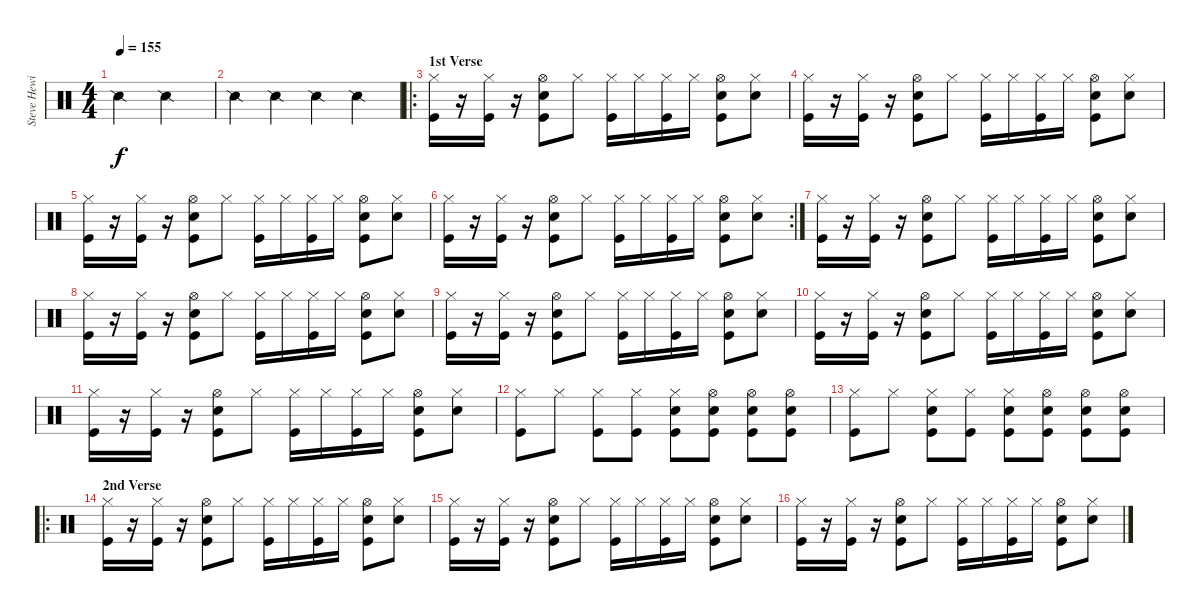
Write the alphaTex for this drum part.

\track ("Steve Hewitt" "Steve Hewi") {instrument percussion}
\staff {score}
\articulation defaults
\ts (4 4)
\tempo 155
\clef neutral
\ks c "Snare (side stick) 2".2{dy f} "Snare (side stick) 2".2
|
"Snare (side stick) 2".4 "Snare (side stick) 2".4 "Snare (side stick) 2".4 "Snare (side stick) 2".4 |
\ro
\section ("" "1st Verse")
("Hi-Hat (closed)" "Kick (hit)").16 r.16 ("Hi-Hat (closed)" "Kick (hit)").16 r.16 ("Snare (hit) 2" "Hi-Hat (open)" "Kick (hit)").8 "Hi-Hat (closed)".8 ("Hi-Hat (closed)" "Kick (hit)").16 "Hi-Hat (closed)".16 ("Hi-Hat (closed)" "Kick (hit)").16 "Hi-Hat (closed)".16 ("Snare (hit) 2" "Hi-Hat (open)" "Kick (hit)").8 ("Snare (hit) 2" "Hi-Hat (closed)").8 |
("Hi-Hat (closed)" "Kick (hit)").16 r.16 ("Hi-Hat (closed)" "Kick (hit)").16 r.16 ("Snare (hit) 2" "Hi-Hat (open)" "Kick (hit)").8 "Hi-Hat (closed)".8 ("Hi-Hat (closed)" "Kick (hit)").16 "Hi-Hat (closed)".16 ("Hi-Hat (closed)" "Kick (hit)").16 "Hi-Hat (closed)".16 ("Snare (hit) 2" "Hi-Hat (open)" "Kick (hit)").8 ("Snare (hit) 2" "Hi-Hat (closed)").8 |
("Hi-Hat (closed)" "Kick (hit)").16 r.16 ("Hi-Hat (closed)" "Kick (hit)").16 r.16 ("Snare (hit) 2" "Hi-Hat (open)" "Kick (hit)").8 "Hi-Hat (closed)".8 ("Hi-Hat (closed)" "Kick (hit)").16 "Hi-Hat (closed)".16 ("Hi-Hat (closed)" "Kick (hit)").16 "Hi-Hat (closed)".16 ("Snare (hit) 2" "Hi-Hat (open)" "Kick (hit)").8 ("Snare (hit) 2" "Hi-Hat (closed)").8 |
\rc 2
("Hi-Hat (closed)" "Kick (hit)").16 r.16 ("Hi-Hat (closed)" "Kick (hit)").16 r.16 ("Snare (hit) 2" "Hi-Hat (open)" "Kick (hit)").8 "Hi-Hat (closed)".8 ("Hi-Hat (closed)" "Kick (hit)").16 "Hi-Hat (closed)".16 ("Hi-Hat (closed)" "Kick (hit)").16 "Hi-Hat (closed)".16 ("Snare (hit) 2" "Hi-Hat (open)" "Kick (hit)").8 ("Snare (hit) 2" "Hi-Hat (closed)").8 |
("Hi-Hat (closed)" "Kick (hit)").16 r.16 ("Hi-Hat (closed)" "Kick (hit)").16 r.16 ("Snare (hit) 2" "Hi-Hat (open)" "Kick (hit)").8 "Hi-Hat (closed)".8 ("Hi-Hat (closed)" "Kick (hit)").16 "Hi-Hat (closed)".16 ("Hi-Hat (closed)" "Kick (hit)").16 "Hi-Hat (closed)".16 ("Snare (hit) 2" "Hi-Hat (open)" "Kick (hit)").8 ("Snare (hit) 2" "Hi-Hat (closed)").8 |
("Hi-Hat (closed)" "Kick (hit)").16 r.16 ("Hi-Hat (closed)" "Kick (hit)").16 r.16 ("Snare (hit) 2" "Hi-Hat (open)" "Kick (hit)").8 "Hi-Hat (closed)".8 ("Hi-Hat (closed)" "Kick (hit)").16 "Hi-Hat (closed)".16 ("Hi-Hat (closed)" "Kick (hit)").16 "Hi-Hat (closed)".16 ("Snare (hit) 2" "Hi-Hat (open)" "Kick (hit)").8 ("Snare (hit) 2" "Hi-Hat (closed)").8 |
("Hi-Hat (closed)" "Kick (hit)").16 r.16 ("Hi-Hat (closed)" "Kick (hit)").16 r.16 ("Snare (hit) 2" "Hi-Hat (open)" "Kick (hit)").8 "Hi-Hat (closed)".8 ("Hi-Hat (closed)" "Kick (hit)").16 "Hi-Hat (closed)".16 ("Hi-Hat (closed)" "Kick (hit)").16 "Hi-Hat (closed)".16 ("Snare (hit) 2" "Hi-Hat (open)" "Kick (hit)").8 ("Snare (hit) 2" "Hi-Hat (closed)").8 |
("Hi-Hat (closed)" "Kick (hit)").16 r.16 ("Hi-Hat (closed)" "Kick (hit)").16 r.16 ("Snare (hit) 2" "Hi-Hat (open)" "Kick (hit)").8 "Hi-Hat (closed)".8 ("Hi-Hat (closed)" "Kick (hit)").16 "Hi-Hat (closed)".16 ("Hi-Hat (closed)" "Kick (hit)").16 "Hi-Hat (closed)".16 ("Snare (hit) 2" "Hi-Hat (open)" "Kick (hit)").8 ("Snare (hit) 2" "Hi-Hat (closed)").8 |
("Hi-Hat (closed)" "Kick (hit)").16 r.16 ("Hi-Hat (closed)" "Kick (hit)").16 r.16 ("Snare (hit) 2" "Hi-Hat (open)" "Kick (hit)").8 "Hi-Hat (closed)".8 ("Hi-Hat (closed)" "Kick (hit)").16 "Hi-Hat (closed)".16 ("Hi-Hat (closed)" "Kick (hit)").16 "Hi-Hat (closed)".16 ("Snare (hit) 2" "Hi-Hat (open)" "Kick (hit)").8 ("Snare (hit) 2" "Hi-Hat (closed)").8 |
("Hi-Hat (closed)" "Kick (hit)").8 "Hi-Hat (closed)".8 ("Hi-Hat (closed)" "Kick (hit)").8 ("Hi-Hat (closed)" "Kick (hit)").8 ("Snare (hit) 2" "Hi-Hat (closed)" "Kick (hit)").8 ("Snare (hit) 2" "Hi-Hat (open)" "Kick (hit)").8 ("Snare (hit) 2" "Hi-Hat (open)" "Kick (hit)").8 ("Snare (hit) 2" "Hi-Hat (open)" "Kick (hit)").8 |
("Hi-Hat (closed)" "Kick (hit)").8 "Hi-Hat (closed)".8 ("Snare (hit) 2" "Hi-Hat (closed)" "Kick (hit)").8 ("Hi-Hat (closed)" "Kick (hit)").8 ("Snare (hit) 2" "Hi-Hat (closed)" "Kick (hit)").8 ("Snare (hit) 2" "Hi-Hat (open)" "Kick (hit)").8 ("Snare (hit) 2" "Hi-Hat (open)" "Kick (hit)").8 ("Snare (hit) 2" "Hi-Hat (open)" "Kick (hit)").8 |
\ro
\section ("" "2nd Verse")
("Hi-Hat (closed)" "Kick (hit)").16 r.16 ("Hi-Hat (closed)" "Kick (hit)").16 r.16 ("Snare (hit) 2" "Hi-Hat (open)" "Kick (hit)").8 "Hi-Hat (closed)".8 ("Hi-Hat (closed)" "Kick (hit)").16 "Hi-Hat (closed)".16 ("Hi-Hat (closed)" "Kick (hit)").16 "Hi-Hat (closed)".16 ("Snare (hit) 2" "Hi-Hat (open)" "Kick (hit)").8 ("Snare (hit) 2" "Hi-Hat (closed)").8 |
("Hi-Hat (closed)" "Kick (hit)").16 r.16 ("Hi-Hat (closed)" "Kick (hit)").16 r.16 ("Snare (hit) 2" "Hi-Hat (open)" "Kick (hit)").8 "Hi-Hat (closed)".8 ("Hi-Hat (closed)" "Kick (hit)").16 "Hi-Hat (closed)".16 ("Hi-Hat (closed)" "Kick (hit)").16 "Hi-Hat (closed)".16 ("Snare (hit) 2" "Hi-Hat (open)" "Kick (hit)").8 ("Snare (hit) 2" "Hi-Hat (closed)").8 |
("Hi-Hat (closed)" "Kick (hit)").16 r.16 ("Hi-Hat (closed)" "Kick (hit)").16 r.16 ("Snare (hit) 2" "Hi-Hat (open)" "Kick (hit)").8 "Hi-Hat (closed)".8 ("Hi-Hat (closed)" "Kick (hit)").16 "Hi-Hat (closed)".16 ("Hi-Hat (closed)" "Kick (hit)").16 "Hi-Hat (closed)".16 ("Snare (hit) 2" "Hi-Hat (open)" "Kick (hit)").8 ("Snare (hit) 2" "Hi-Hat (closed)").8
